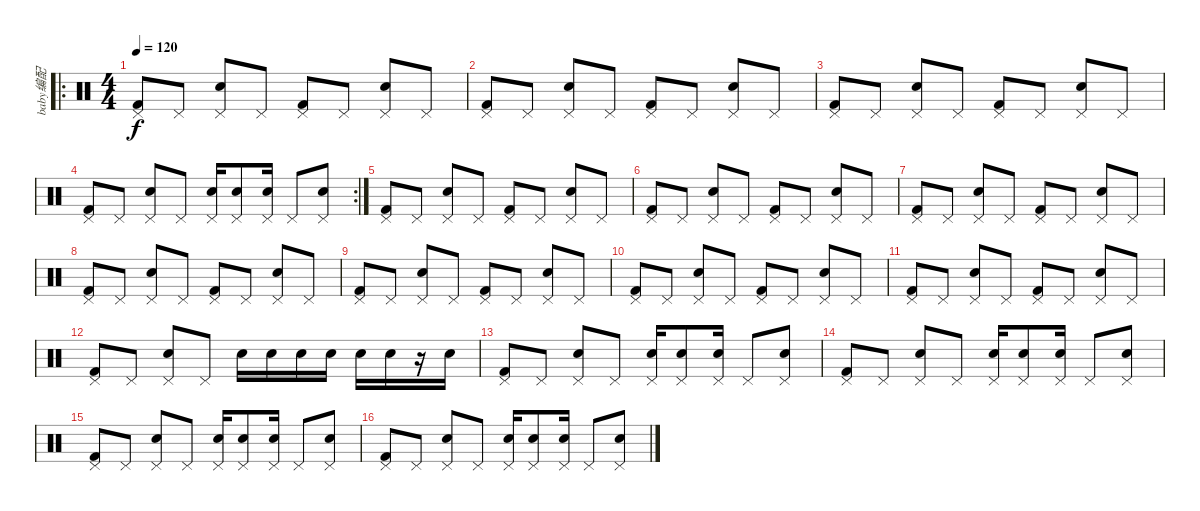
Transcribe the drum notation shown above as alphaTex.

\track ("baby编配" "baby编配") {instrument percussion}
\staff {score}
\articulation defaults
\ro
\ts (4 4)
\tempo 120
\clef neutral
\ks c
("Kick (hit) 2" "Pedal Hi-Hat (hit)").8{dy f} "Pedal Hi-Hat (hit)".8 ("Snare (hit) 2" "Pedal Hi-Hat (hit)").8 "Pedal Hi-Hat (hit)".8 ("Kick (hit) 2" "Pedal Hi-Hat (hit)").8 "Pedal Hi-Hat (hit)".8 ("Snare (hit) 2" "Pedal Hi-Hat (hit)").8 "Pedal Hi-Hat (hit)".8 |
("Kick (hit) 2" "Pedal Hi-Hat (hit)").8 "Pedal Hi-Hat (hit)".8 ("Snare (hit) 2" "Pedal Hi-Hat (hit)").8 "Pedal Hi-Hat (hit)".8 ("Kick (hit) 2" "Pedal Hi-Hat (hit)").8 "Pedal Hi-Hat (hit)".8 ("Snare (hit) 2" "Pedal Hi-Hat (hit)").8 "Pedal Hi-Hat (hit)".8 |
("Kick (hit) 2" "Pedal Hi-Hat (hit)").8 "Pedal Hi-Hat (hit)".8 ("Snare (hit) 2" "Pedal Hi-Hat (hit)").8 "Pedal Hi-Hat (hit)".8 ("Kick (hit) 2" "Pedal Hi-Hat (hit)").8 "Pedal Hi-Hat (hit)".8 ("Snare (hit) 2" "Pedal Hi-Hat (hit)").8 "Pedal Hi-Hat (hit)".8 |
\rc 2
("Pedal Hi-Hat (hit)" "Kick (hit) 2").8 "Pedal Hi-Hat (hit)".8 ("Pedal Hi-Hat (hit)" "Snare (hit) 2").8 "Pedal Hi-Hat (hit)".8 ("Pedal Hi-Hat (hit)" "Snare (hit) 2").16 ("Pedal Hi-Hat (hit)" "Snare (hit) 2").8 ("Pedal Hi-Hat (hit)" "Snare (hit) 2").16 "Pedal Hi-Hat (hit)".8 ("Pedal Hi-Hat (hit)" "Snare (hit) 2").8 |
("Kick (hit) 2" "Pedal Hi-Hat (hit)").8 "Pedal Hi-Hat (hit)".8 ("Snare (hit) 2" "Pedal Hi-Hat (hit)").8 "Pedal Hi-Hat (hit)".8 ("Kick (hit) 2" "Pedal Hi-Hat (hit)").8 "Pedal Hi-Hat (hit)".8 ("Snare (hit) 2" "Pedal Hi-Hat (hit)").8 "Pedal Hi-Hat (hit)".8 |
("Kick (hit) 2" "Pedal Hi-Hat (hit)").8 "Pedal Hi-Hat (hit)".8 ("Snare (hit) 2" "Pedal Hi-Hat (hit)").8 "Pedal Hi-Hat (hit)".8 ("Kick (hit) 2" "Pedal Hi-Hat (hit)").8 "Pedal Hi-Hat (hit)".8 ("Snare (hit) 2" "Pedal Hi-Hat (hit)").8 "Pedal Hi-Hat (hit)".8 |
("Kick (hit) 2" "Pedal Hi-Hat (hit)").8 "Pedal Hi-Hat (hit)".8 ("Snare (hit) 2" "Pedal Hi-Hat (hit)").8 "Pedal Hi-Hat (hit)".8 ("Kick (hit) 2" "Pedal Hi-Hat (hit)").8 "Pedal Hi-Hat (hit)".8 ("Snare (hit) 2" "Pedal Hi-Hat (hit)").8 "Pedal Hi-Hat (hit)".8 |
("Kick (hit) 2" "Pedal Hi-Hat (hit)").8 "Pedal Hi-Hat (hit)".8 ("Snare (hit) 2" "Pedal Hi-Hat (hit)").8 "Pedal Hi-Hat (hit)".8 ("Kick (hit) 2" "Pedal Hi-Hat (hit)").8 "Pedal Hi-Hat (hit)".8 ("Snare (hit) 2" "Pedal Hi-Hat (hit)").8 "Pedal Hi-Hat (hit)".8 |
("Kick (hit) 2" "Pedal Hi-Hat (hit)").8 "Pedal Hi-Hat (hit)".8 ("Snare (hit) 2" "Pedal Hi-Hat (hit)").8 "Pedal Hi-Hat (hit)".8 ("Kick (hit) 2" "Pedal Hi-Hat (hit)").8 "Pedal Hi-Hat (hit)".8 ("Snare (hit) 2" "Pedal Hi-Hat (hit)").8 "Pedal Hi-Hat (hit)".8 |
("Kick (hit) 2" "Pedal Hi-Hat (hit)").8 "Pedal Hi-Hat (hit)".8 ("Snare (hit) 2" "Pedal Hi-Hat (hit)").8 "Pedal Hi-Hat (hit)".8 ("Kick (hit) 2" "Pedal Hi-Hat (hit)").8 "Pedal Hi-Hat (hit)".8 ("Snare (hit) 2" "Pedal Hi-Hat (hit)").8 "Pedal Hi-Hat (hit)".8 |
("Kick (hit) 2" "Pedal Hi-Hat (hit)").8 "Pedal Hi-Hat (hit)".8 ("Snare (hit) 2" "Pedal Hi-Hat (hit)").8 "Pedal Hi-Hat (hit)".8 ("Kick (hit) 2" "Pedal Hi-Hat (hit)").8 "Pedal Hi-Hat (hit)".8 ("Snare (hit) 2" "Pedal Hi-Hat (hit)").8 "Pedal Hi-Hat (hit)".8 |
("Kick (hit) 2" "Pedal Hi-Hat (hit)").8 "Pedal Hi-Hat (hit)".8 ("Snare (hit) 2" "Pedal Hi-Hat (hit)").8 "Pedal Hi-Hat (hit)".8 "Snare (hit) 2".16 "Snare (hit) 2".16 "Snare (hit) 2".16 "Snare (hit) 2".16 "Snare (hit) 2".16 "Snare (hit) 2".16 r.16 "Snare (hit) 2".16 |
("Pedal Hi-Hat (hit)" "Kick (hit) 2").8 "Pedal Hi-Hat (hit)".8 ("Pedal Hi-Hat (hit)" "Snare (hit) 2").8 "Pedal Hi-Hat (hit)".8 ("Pedal Hi-Hat (hit)" "Snare (hit) 2").16 ("Pedal Hi-Hat (hit)" "Snare (hit) 2").8 ("Pedal Hi-Hat (hit)" "Snare (hit) 2").16 "Pedal Hi-Hat (hit)".8 ("Pedal Hi-Hat (hit)" "Snare (hit) 2").8 |
("Pedal Hi-Hat (hit)" "Kick (hit) 2").8 "Pedal Hi-Hat (hit)".8 ("Pedal Hi-Hat (hit)" "Snare (hit) 2").8 "Pedal Hi-Hat (hit)".8 ("Pedal Hi-Hat (hit)" "Snare (hit) 2").16 ("Pedal Hi-Hat (hit)" "Snare (hit) 2").8 ("Pedal Hi-Hat (hit)" "Snare (hit) 2").16 "Pedal Hi-Hat (hit)".8 ("Pedal Hi-Hat (hit)" "Snare (hit) 2").8 |
("Pedal Hi-Hat (hit)" "Kick (hit) 2").8 "Pedal Hi-Hat (hit)".8 ("Pedal Hi-Hat (hit)" "Snare (hit) 2").8 "Pedal Hi-Hat (hit)".8 ("Pedal Hi-Hat (hit)" "Snare (hit) 2").16 ("Pedal Hi-Hat (hit)" "Snare (hit) 2").8 ("Pedal Hi-Hat (hit)" "Snare (hit) 2").16 "Pedal Hi-Hat (hit)".8 ("Pedal Hi-Hat (hit)" "Snare (hit) 2").8 |
("Pedal Hi-Hat (hit)" "Kick (hit) 2").8 "Pedal Hi-Hat (hit)".8 ("Pedal Hi-Hat (hit)" "Snare (hit) 2").8 "Pedal Hi-Hat (hit)".8 ("Pedal Hi-Hat (hit)" "Snare (hit) 2").16 ("Pedal Hi-Hat (hit)" "Snare (hit) 2").8 ("Pedal Hi-Hat (hit)" "Snare (hit) 2").16 "Pedal Hi-Hat (hit)".8 ("Pedal Hi-Hat (hit)" "Snare (hit) 2").8
